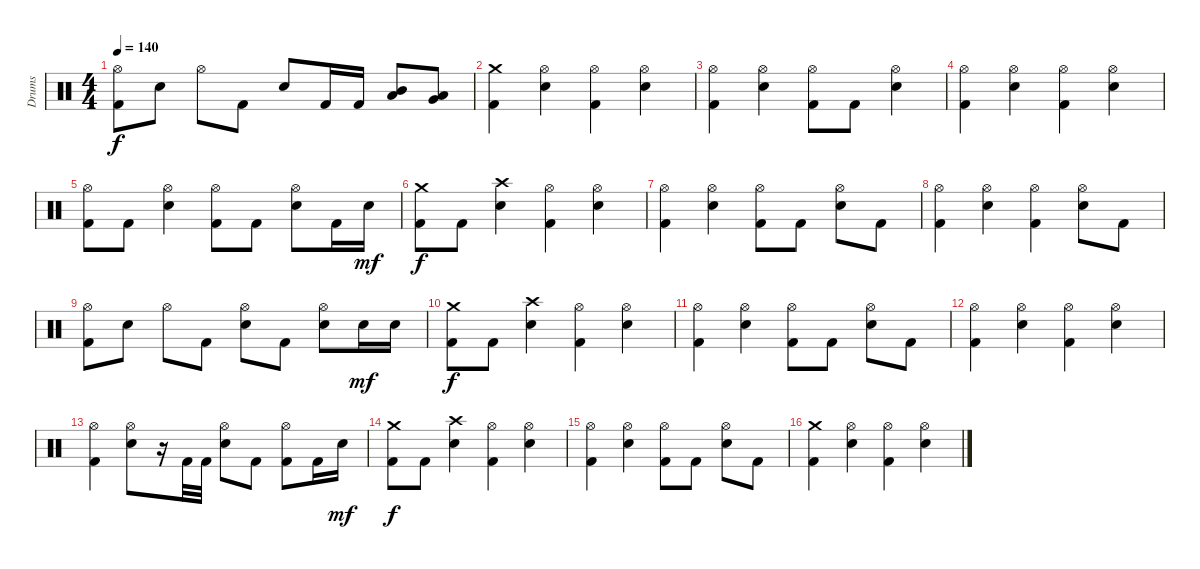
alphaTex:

\track ("Drums" "Drums") {instrument percussion}
\staff {score}
\articulation defaults
\ts (4 4)
\tempo 140
\clef neutral
\ks c
("Hi-Hat (open)" "Kick (hit) 2").8{dy f} "Electric Snare (hit)".8 "Hi-Hat (open)".8 "Kick (hit) 2".8 "Electric Snare (hit)".8 "Kick (hit) 2".16 "Kick (hit) 2".16 ("Mid Tom (hit)" "Low Tom (hit)").8 ("Low Tom (hit)" "Very Low Tom (hit)").8 |
("Crash medium (hit)" "Kick (hit) 2").4 ("Hi-Hat (open)" "Electric Snare (hit)").4 ("Hi-Hat (open)" "Kick (hit) 2").4 ("Hi-Hat (open)" "Electric Snare (hit)").4 |
("Hi-Hat (open)" "Kick (hit) 2").4 ("Hi-Hat (open)" "Electric Snare (hit)").4 ("Hi-Hat (open)" "Kick (hit) 2").8 "Kick (hit) 2".8 ("Hi-Hat (open)" "Electric Snare (hit)").4 |
("Hi-Hat (open)" "Kick (hit) 2").4 ("Hi-Hat (open)" "Electric Snare (hit)").4 ("Hi-Hat (open)" "Kick (hit) 2").4 ("Hi-Hat (open)" "Electric Snare (hit)").4 |
("Hi-Hat (open)" "Kick (hit) 2").8 "Kick (hit) 2".8 ("Hi-Hat (open)" "Electric Snare (hit)").4 ("Hi-Hat (open)" "Kick (hit) 2").8 "Kick (hit) 2".8 ("Hi-Hat (open)" "Electric Snare (hit)").8 "Kick (hit) 2".16 "Electric Snare (hit)".16{dy mf} |
("Crash medium (hit)" "Kick (hit) 2").8{dy f} "Kick (hit) 2".8 ("Crash high (hit)" "Electric Snare (hit)").4 ("Hi-Hat (open)" "Kick (hit) 2").4 ("Hi-Hat (open)" "Electric Snare (hit)").4 |
("Hi-Hat (open)" "Kick (hit) 2").4 ("Hi-Hat (open)" "Electric Snare (hit)").4 ("Hi-Hat (open)" "Kick (hit) 2").8 "Kick (hit) 2".8 ("Hi-Hat (open)" "Electric Snare (hit)").8 "Kick (hit) 2".8 |
("Hi-Hat (open)" "Kick (hit) 2").4 ("Hi-Hat (open)" "Electric Snare (hit)").4 ("Hi-Hat (open)" "Kick (hit) 2").4 ("Hi-Hat (open)" "Electric Snare (hit)").8 "Kick (hit) 2".8 |
("Hi-Hat (open)" "Kick (hit) 2").8 "Electric Snare (hit)".8 "Hi-Hat (open)".8 "Kick (hit) 2".8 ("Hi-Hat (open)" "Electric Snare (hit)").8 "Kick (hit) 2".8 ("Hi-Hat (open)" "Electric Snare (hit)").8 "Electric Snare (hit)".16{dy mf} "Electric Snare (hit)".16 |
("Crash medium (hit)" "Kick (hit) 2").8{dy f} "Kick (hit) 2".8 ("Crash high (hit)" "Electric Snare (hit)").4 ("Hi-Hat (open)" "Kick (hit) 2").4 ("Hi-Hat (open)" "Electric Snare (hit)").4 |
("Hi-Hat (open)" "Kick (hit) 2").4 ("Hi-Hat (open)" "Electric Snare (hit)").4 ("Hi-Hat (open)" "Kick (hit) 2").8 "Kick (hit) 2".8 ("Hi-Hat (open)" "Electric Snare (hit)").8 "Kick (hit) 2".8 |
("Hi-Hat (open)" "Kick (hit) 2").4 ("Hi-Hat (open)" "Electric Snare (hit)").4 ("Hi-Hat (open)" "Kick (hit) 2").4 ("Hi-Hat (open)" "Electric Snare (hit)").4 |
("Hi-Hat (open)" "Kick (hit) 2").4 ("Hi-Hat (open)" "Electric Snare (hit)").8 r.16 "Kick (hit) 2".32 "Kick (hit) 2".32 ("Hi-Hat (open)" "Electric Snare (hit)").8 "Kick (hit) 2".8 ("Hi-Hat (open)" "Kick (hit) 2").8 "Kick (hit) 2".16 "Electric Snare (hit)".16{dy mf} |
("Crash medium (hit)" "Kick (hit) 2").8{dy f} "Kick (hit) 2".8 ("Crash high (hit)" "Electric Snare (hit)").4 ("Hi-Hat (open)" "Kick (hit) 2").4 ("Hi-Hat (open)" "Electric Snare (hit)").4 |
("Hi-Hat (open)" "Kick (hit) 2").4 ("Hi-Hat (open)" "Electric Snare (hit)").4 ("Hi-Hat (open)" "Kick (hit) 2").8 "Kick (hit) 2".8 ("Hi-Hat (open)" "Electric Snare (hit)").8 "Kick (hit) 2".8 |
("Crash medium (hit)" "Kick (hit) 2").4 ("Hi-Hat (open)" "Electric Snare (hit)").4 ("Hi-Hat (open)" "Kick (hit) 2").4 ("Hi-Hat (open)" "Electric Snare (hit)").4
